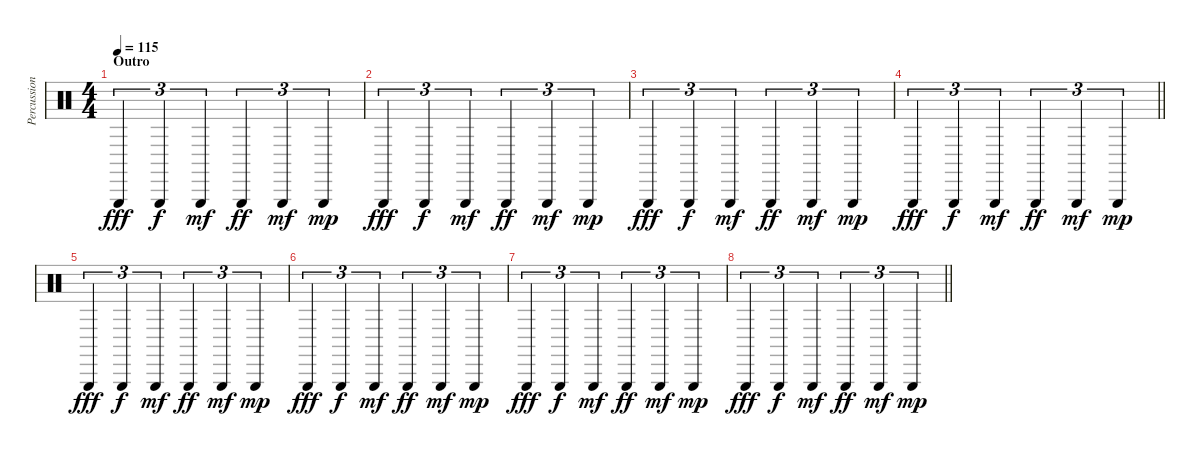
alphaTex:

\track ("Percussions" "Percussion") {instrument percussion}
\staff {score}
\articulation defaults
\ts (4 4)
\section ("" "Outro")
\tempo 115
\clef neutral
\ks c "Triangle (hit)".4{tu (3 2) dy fff} "Triangle (hit)".4{tu (3 2) dy f} "Triangle (hit)".4{tu (3 2) dy mf} "Triangle (hit)".4{tu (3 2) dy ff} "Triangle (hit)".4{tu (3 2) dy mf} "Triangle (hit)".4{tu (3 2) dy mp}
|
"Triangle (hit)".4{tu (3 2) dy fff} "Triangle (hit)".4{tu (3 2) dy f} "Triangle (hit)".4{tu (3 2) dy mf} "Triangle (hit)".4{tu (3 2) dy ff} "Triangle (hit)".4{tu (3 2) dy mf} "Triangle (hit)".4{tu (3 2) dy mp} |
"Triangle (hit)".4{tu (3 2) dy fff} "Triangle (hit)".4{tu (3 2) dy f} "Triangle (hit)".4{tu (3 2) dy mf} "Triangle (hit)".4{tu (3 2) dy ff} "Triangle (hit)".4{tu (3 2) dy mf} "Triangle (hit)".4{tu (3 2) dy mp} |
\barLineRight lightlight "Triangle (hit)".4{tu (3 2) dy fff} "Triangle (hit)".4{tu (3 2) dy f} "Triangle (hit)".4{tu (3 2) dy mf} "Triangle (hit)".4{tu (3 2) dy ff} "Triangle (hit)".4{tu (3 2) dy mf} "Triangle (hit)".4{tu (3 2) dy mp}
|
"Triangle (hit)".4{tu (3 2) dy fff} "Triangle (hit)".4{tu (3 2) dy f} "Triangle (hit)".4{tu (3 2) dy mf} "Triangle (hit)".4{tu (3 2) dy ff} "Triangle (hit)".4{tu (3 2) dy mf} "Triangle (hit)".4{tu (3 2) dy mp} |
"Triangle (hit)".4{tu (3 2) dy fff} "Triangle (hit)".4{tu (3 2) dy f} "Triangle (hit)".4{tu (3 2) dy mf} "Triangle (hit)".4{tu (3 2) dy ff} "Triangle (hit)".4{tu (3 2) dy mf} "Triangle (hit)".4{tu (3 2) dy mp} |
"Triangle (hit)".4{tu (3 2) dy fff} "Triangle (hit)".4{tu (3 2) dy f} "Triangle (hit)".4{tu (3 2) dy mf} "Triangle (hit)".4{tu (3 2) dy ff} "Triangle (hit)".4{tu (3 2) dy mf} "Triangle (hit)".4{tu (3 2) dy mp} |
\barLineRight lightlight "Triangle (hit)".4{tu (3 2) dy fff} "Triangle (hit)".4{tu (3 2) dy f} "Triangle (hit)".4{tu (3 2) dy mf} "Triangle (hit)".4{tu (3 2) dy ff} "Triangle (hit)".4{tu (3 2) dy mf} "Triangle (hit)".4{tu (3 2) dy mp}
